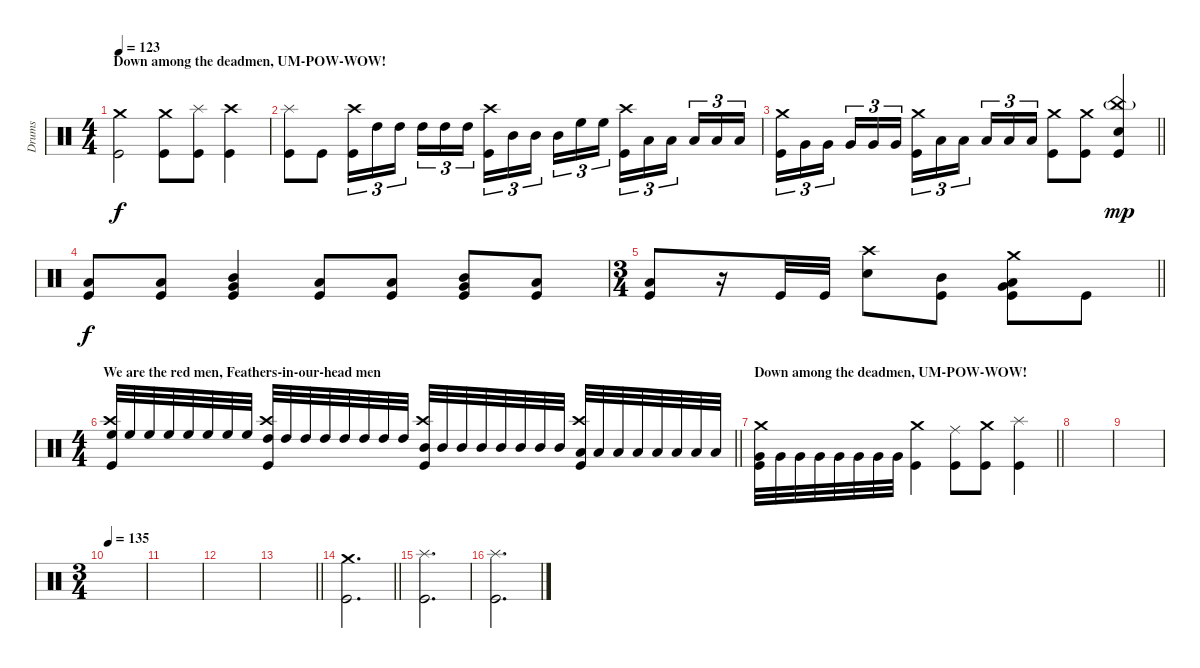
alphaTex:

\track ("Drums" "Drums") {instrument percussion}
\staff {score}
\articulation defaults
\ts (4 4)
\section ("" "Down among the deadmen, UM-POW-WOW!")
\tempo 123
\clef neutral
\ks c
("Crash medium (hit)" "Kick (hit)").2{dy f} ("Crash medium (hit)" "Kick (hit)").8 ("Splash (hit)" "Kick (hit)").8 ("Crash high (hit)" "Kick (hit)").4 |
("Splash (hit)" "Kick (hit)").8 "Kick (hit)".8 ("Crash high (hit)" "Kick (hit)").16{tu (3 2)} "High Tom (hit)".16{tu (3 2)} "High Tom (hit)".16{tu (3 2) beam splitsecondary} "High Tom (hit)".16{tu (3 2)} "High Tom (hit)".16{tu (3 2)} "High Tom (hit)".16{tu (3 2)} ("Crash high (hit)" "Kick (hit)").16{tu (3 2)} "Mid Tom (hit)".16{tu (3 2)} "Mid Tom (hit)".16{tu (3 2) beam splitsecondary} "Mid Tom (hit)".16{tu (3 2)} "High Floor Tom (hit)".16{tu (3 2)} "High Floor Tom (hit)".16{tu (3 2)} ("Crash high (hit)" "Kick (hit)").16{tu (3 2)} "Low Tom (hit)".16{tu (3 2)} "Low Tom (hit)".16{tu (3 2) beam splitsecondary} "Low Tom (hit)".16{tu (3 2)} "Low Tom (hit)".16{tu (3 2)} "Low Tom (hit)".16{tu (3 2)} |
\barLineRight lightlight
("Crash medium (hit)" "Kick (hit)").16{tu (3 2)} "Very Low Tom (hit)".16{tu (3 2)} "Very Low Tom (hit)".16{tu (3 2) beam splitsecondary} "Very Low Tom (hit)".16{tu (3 2)} "Very Low Tom (hit)".16{tu (3 2)} "Very Low Tom (hit)".16{tu (3 2)} ("Crash medium (hit)" "Kick (hit)").16{tu (3 2)} "Low Floor Tom (hit)".16{tu (3 2)} "Low Floor Tom (hit)".16{tu (3 2) beam splitsecondary} "Low Floor Tom (hit)".16{tu (3 2)} "Low Floor Tom (hit)".16{tu (3 2)} "Low Floor Tom (hit)".16{tu (3 2)} ("Crash medium (hit)" "Kick (hit)").8 ("Crash medium (hit)" "Kick (hit)").8 ("China (hit)"{g} "Snare (hit) 2" "Kick (hit)").4{dy mp} |
("Low Tom (hit)" "Kick (hit)").8{dy f} ("Low Tom (hit)" "Kick (hit)").8 ("Mid Tom (hit)" "Very Low Tom (hit)" "Kick (hit)").4 ("Low Tom (hit)" "Kick (hit)").8 ("Low Tom (hit)" "Kick (hit)").8 ("Mid Tom (hit)" "Very Low Tom (hit)" "Kick (hit)").8 ("Low Tom (hit)" "Kick (hit)").8 |
\ts (3 4)
\barLineRight lightlight
("Low Tom (hit)" "Kick (hit)").8 r.16 "Kick (hit)".32 "Kick (hit)".32 ("Crash high (hit)" "Snare (hit) 2").8 ("Mid Tom (hit)" "Kick (hit)").8 ("Crash medium (hit)" "Low Tom (hit)" "Very Low Tom (hit)" "Kick (hit)").8 "Kick (hit)".8 |
\ts (4 4)
\section ("" "We are the red men, Feathers-in-our-head men")
\barLineRight lightlight
("Crash high (hit)" "High Floor Tom (hit)" "Kick (hit)").32 "High Floor Tom (hit)".32 "High Floor Tom (hit)".32 "High Floor Tom (hit)".32 "High Floor Tom (hit)".32 "High Floor Tom (hit)".32 "High Floor Tom (hit)".32 "High Floor Tom (hit)".32 ("Crash high (hit)" "High Tom (hit)" "Kick (hit)").32 "High Tom (hit)".32 "High Tom (hit)".32 "High Tom (hit)".32 "High Tom (hit)".32 "High Tom (hit)".32 "High Tom (hit)".32 "High Tom (hit)".32 ("Crash high (hit)" "Mid Tom (hit)" "Kick (hit)").32 "Mid Tom (hit)".32 "Mid Tom (hit)".32 "Mid Tom (hit)".32 "Mid Tom (hit)".32 "Mid Tom (hit)".32 "Mid Tom (hit)".32 "Mid Tom (hit)".32 ("Crash high (hit)" "Low Tom (hit)" "Kick (hit)").32 "Low Tom (hit)".32 "Low Tom (hit)".32 "Low Tom (hit)".32 "Low Tom (hit)".32 "Low Tom (hit)".32 "Low Tom (hit)".32 "Low Tom (hit)".32 |
\section ("" "Down among the deadmen, UM-POW-WOW!")
\barLineRight lightlight
("Crash medium (hit)" "Very Low Tom (hit)" "Kick (hit)").32 "Very Low Tom (hit)".32 "Very Low Tom (hit)".32 "Very Low Tom (hit)".32 "Very Low Tom (hit)".32 "Very Low Tom (hit)".32 "Very Low Tom (hit)".32 "Very Low Tom (hit)".32 ("Crash medium (hit)" "Kick (hit)").4 ("Ride (middle)" "Kick (hit)").8 ("Crash medium (hit)" "Kick (hit)").8 ("Splash (hit)" "Kick (hit)").4 |
|
|
\ts (3 4)
\tempo 135
|
|
|
\barLineRight lightlight
|
\barLineRight lightlight
("Crash medium (hit)" "Kick (hit)").2{d} |
("Splash (hit)" "Kick (hit)").2{d} |
("Splash (hit)" "Kick (hit)").2{d}
